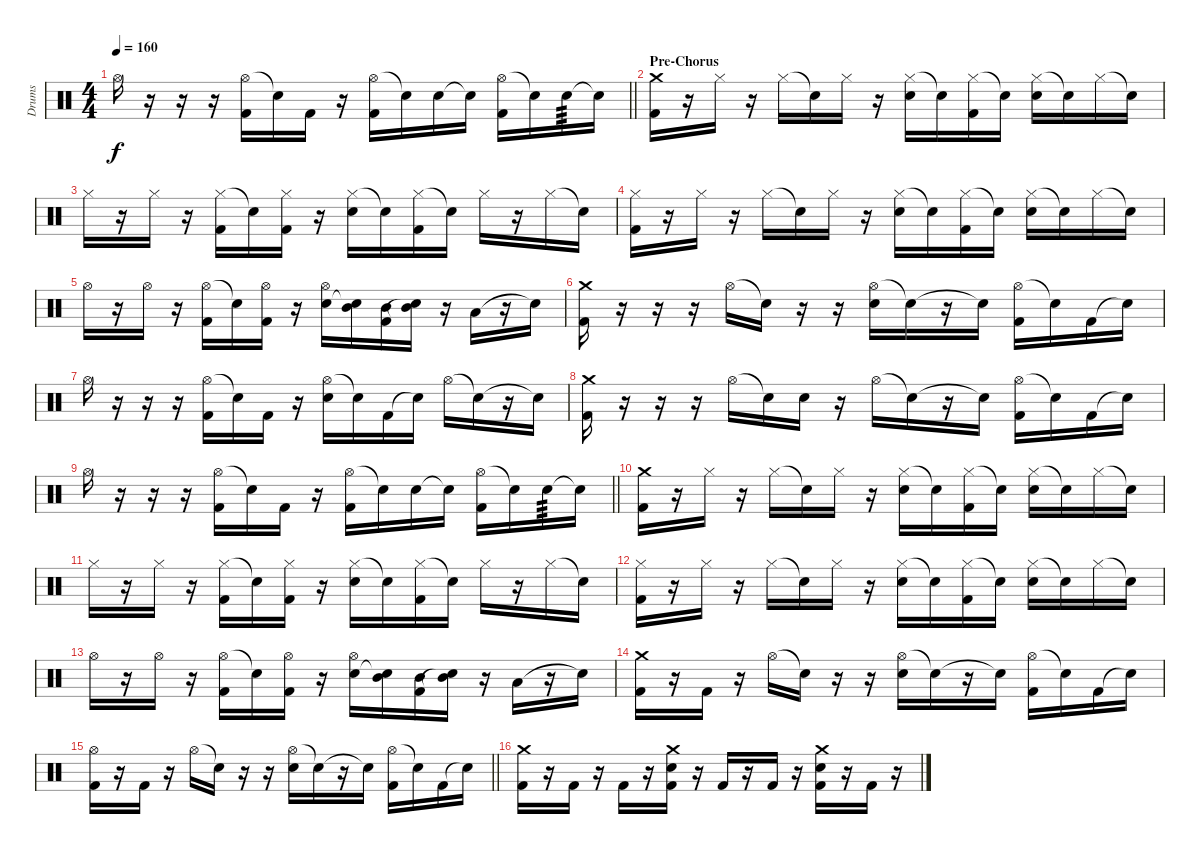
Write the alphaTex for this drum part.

\track ("Drums" "Drums") {instrument percussion}
\staff {score}
\articulation defaults
\ts (4 4)
\tempo 160
\clef neutral
\barLineRight lightlight
\ks c "Hi-Hat (open)".16{dy f}
r.16 r.16 r.16 ("Hi-Hat (open)" "Kick (hit) 2").16 "Snare (hit)"{t}.16 "Kick (hit) 2".16 r.16 ("Hi-Hat (open)" "Kick (hit) 2").16 "Snare (hit)"{t}.16 "Snare (hit) 2".16 "Snare (hit)"{t}.16 ("Hi-Hat (open)" "Kick (hit) 2").16 "Snare (hit)"{t}.16 "Snare (hit) 2".16{tp 3} "Snare (hit)"{t}.16 |
\section ("" "Pre-Chorus")
("Crash medium (hit)" "Kick (hit) 2").16 r.16 "Hi-Hat (closed)".16 r.16 "Hi-Hat (closed)".16 "Snare (hit)"{t}.16 "Hi-Hat (closed)".16 r.16 ("Hi-Hat (closed)" "Snare (hit) 2").16 "Snare (hit)"{t}.16 ("Hi-Hat (closed)" "Kick (hit) 2").16 "Snare (hit)"{t}.16 ("Hi-Hat (closed)" "Snare (hit) 2").16 "Snare (hit)"{t}.16 "Hi-Hat (closed)".16 "Snare (hit)"{t}.16 |
"Hi-Hat (closed)".16 r.16 "Hi-Hat (closed)".16 r.16 ("Hi-Hat (closed)" "Kick (hit) 2").16 "Snare (hit)"{t}.16 ("Hi-Hat (closed)" "Kick (hit) 2").16 r.16 ("Hi-Hat (closed)" "Snare (hit) 2").16 "Snare (hit)"{t}.16 ("Hi-Hat (closed)" "Kick (hit) 2").16 "Snare (hit)"{t}.16 "Hi-Hat (closed)".16 r.16 "Hi-Hat (closed)".16 "Snare (hit)"{t}.16 |
("Hi-Hat (closed)" "Kick (hit) 2").16 r.16 "Hi-Hat (closed)".16 r.16 "Hi-Hat (closed)".16 "Snare (hit)"{t}.16 "Hi-Hat (closed)".16 r.16 ("Hi-Hat (closed)" "Snare (hit) 2").16 "Snare (hit)"{t}.16 ("Hi-Hat (closed)" "Kick (hit) 2").16 "Snare (hit)"{t}.16 ("Hi-Hat (closed)" "Snare (hit) 2").16 "Snare (hit)"{t}.16 "Hi-Hat (closed)".16 "Snare (hit)"{t}.16 |
"Hi-Hat (open)".16 r.16 "Hi-Hat (open)".16 r.16 ("Hi-Hat (open)" "Kick (hit) 2").16 "Snare (hit)"{t}.16 ("Hi-Hat (open)" "Kick (hit) 2").16 r.16 ("Hi-Hat (open)" "Snare (hit) 2").16 ("Mid Tom (hit)" "Snare (hit)"{t}).16 ("Mid Tom (hit)" "Kick (hit) 2").16 ("Mid Tom (hit)" "Snare (hit)"{t}).16 r.16 "Low Tom (hit)".16 r.16 "Snare (hit)"{t}.16 |
("Crash medium (hit)" "Kick (hit) 2").16 r.16 r.16 r.16 "Hi-Hat (open)".16 "Snare (hit)"{t}.16 r.16 r.16 ("Hi-Hat (open)" "Snare (hit) 2").16 "Snare (hit)"{t}.16 r.16 "Snare (hit)"{t}.16 ("Hi-Hat (open)" "Kick (hit) 2").16 "Snare (hit)"{t}.16 "Kick (hit) 2".16 "Snare (hit)"{t}.16 |
"Hi-Hat (open)".16 r.16 r.16 r.16 ("Hi-Hat (open)" "Kick (hit) 2").16 "Snare (hit)"{t}.16 "Kick (hit) 2".16 r.16 ("Hi-Hat (open)" "Snare (hit) 2").16 "Snare (hit)"{t}.16 "Kick (hit) 2".16 "Snare (hit)"{t}.16 "Hi-Hat (open)".16 "Snare (hit)"{t}.16 r.16 "Snare (hit)"{t}.16 |
("Crash medium (hit)" "Kick (hit) 2").16 r.16 r.16 r.16 "Hi-Hat (open)".16 "Snare (hit)"{t}.16 "Snare (hit) 2".16 r.16 "Hi-Hat (open)".16 "Snare (hit)"{t}.16 r.16 "Snare (hit)"{t}.16 ("Hi-Hat (open)" "Kick (hit) 2").16 "Snare (hit)"{t}.16 "Kick (hit) 2".16 "Snare (hit)"{t}.16 |
\barLineRight lightlight "Hi-Hat (open)".16
r.16 r.16 r.16 ("Hi-Hat (open)" "Kick (hit) 2").16 "Snare (hit)"{t}.16 "Kick (hit) 2".16 r.16 ("Hi-Hat (open)" "Kick (hit) 2").16 "Snare (hit)"{t}.16 "Snare (hit) 2".16 "Snare (hit)"{t}.16 ("Hi-Hat (open)" "Kick (hit) 2").16 "Snare (hit)"{t}.16 "Snare (hit) 2".16{tp 3} "Snare (hit)"{t}.16 |
("Crash medium (hit)" "Kick (hit) 2").16 r.16 "Hi-Hat (closed)".16 r.16 "Hi-Hat (closed)".16 "Snare (hit)"{t}.16 "Hi-Hat (closed)".16 r.16 ("Hi-Hat (closed)" "Snare (hit) 2").16 "Snare (hit)"{t}.16 ("Hi-Hat (closed)" "Kick (hit) 2").16 "Snare (hit)"{t}.16 ("Hi-Hat (closed)" "Snare (hit) 2").16 "Snare (hit)"{t}.16 "Hi-Hat (closed)".16 "Snare (hit)"{t}.16 |
"Hi-Hat (closed)".16 r.16 "Hi-Hat (closed)".16 r.16 ("Hi-Hat (closed)" "Kick (hit) 2").16 "Snare (hit)"{t}.16 ("Hi-Hat (closed)" "Kick (hit) 2").16 r.16 ("Hi-Hat (closed)" "Snare (hit) 2").16 "Snare (hit)"{t}.16 ("Hi-Hat (closed)" "Kick (hit) 2").16 "Snare (hit)"{t}.16 "Hi-Hat (closed)".16 r.16 "Hi-Hat (closed)".16 "Snare (hit)"{t}.16 |
("Hi-Hat (closed)" "Kick (hit) 2").16 r.16 "Hi-Hat (closed)".16 r.16 "Hi-Hat (closed)".16 "Snare (hit)"{t}.16 "Hi-Hat (closed)".16 r.16 ("Hi-Hat (closed)" "Snare (hit) 2").16 "Snare (hit)"{t}.16 ("Hi-Hat (closed)" "Kick (hit) 2").16 "Snare (hit)"{t}.16 ("Hi-Hat (closed)" "Snare (hit) 2").16 "Snare (hit)"{t}.16 "Hi-Hat (closed)".16 "Snare (hit)"{t}.16 |
"Hi-Hat (open)".16 r.16 "Hi-Hat (open)".16 r.16 ("Hi-Hat (open)" "Kick (hit) 2").16 "Snare (hit)"{t}.16 ("Hi-Hat (open)" "Kick (hit) 2").16 r.16 ("Hi-Hat (open)" "Snare (hit) 2").16 ("Mid Tom (hit)" "Snare (hit)"{t}).16 ("Mid Tom (hit)" "Kick (hit) 2").16 ("Mid Tom (hit)" "Snare (hit)"{t}).16 r.16 "Low Tom (hit)".16 r.16 "Snare (hit)"{t}.16 |
("Crash medium (hit)" "Kick (hit) 2").16 r.16 "Kick (hit) 2".16 r.16 "Hi-Hat (open)".16 "Snare (hit)"{t}.16 r.16 r.16 ("Hi-Hat (open)" "Snare (hit) 2").16 "Snare (hit)"{t}.16 r.16 "Snare (hit)"{t}.16 ("Hi-Hat (open)" "Kick (hit) 2").16 "Snare (hit)"{t}.16 "Kick (hit) 2".16 "Snare (hit)"{t}.16 |
\barLineRight lightlight
("Hi-Hat (open)" "Kick (hit) 2").16 r.16 "Kick (hit) 2".16 r.16 "Hi-Hat (open)".16 "Snare (hit)"{t}.16 r.16 r.16 ("Hi-Hat (open)" "Snare (hit) 2").16 "Snare (hit)"{t}.16 r.16 "Snare (hit)"{t}.16 ("Hi-Hat (open)" "Kick (hit) 2").16 "Snare (hit)"{t}.16 "Kick (hit) 2".16 "Snare (hit)"{t}.16 |
("Crash medium (hit)" "Kick (hit) 2").16 r.16 "Kick (hit) 2".16 r.16 "Kick (hit) 2".16 r.16 ("Crash medium (hit)" "Snare (hit) 2" "Kick (hit) 2").16 r.16 "Kick (hit) 2".16 r.16 "Kick (hit) 2".16 r.16 ("Crash medium (hit)" "Snare (hit) 2" "Kick (hit) 2").16 r.16 "Kick (hit) 2".16 r.16
